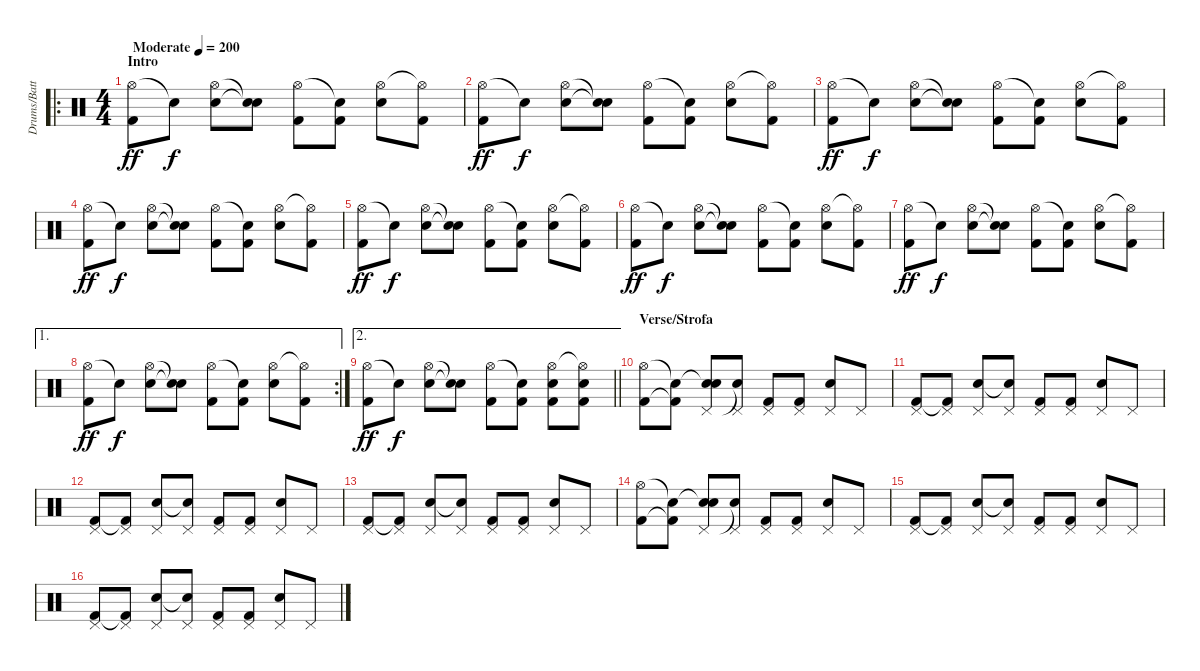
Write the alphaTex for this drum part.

\track ("Drums/Batteria" "Drums/Batt") {instrument percussion}
\staff {score}
\articulation defaults
\ro
\ts (4 4)
\section ("" "Intro")
\tempo (200 "Moderate")
\clef neutral
\ks c
("Hi-Hat (open)" "Kick (hit) 2").8{dy ff} "Snare (hit)"{t}.8{dy f} ("Hi-Hat (open)" "Electric Snare (hit)").8 ("Snare (hit)"{t} "Snare (hit)"{t}).8 ("Hi-Hat (open)" "Kick (hit) 2").8 ("Snare (hit)"{t} "Kick (hit) 2").8 ("Hi-Hat (open)" "Electric Snare (hit)").8 ("Hi-Hat (open)"{t} "Kick (hit) 2").8 |
("Hi-Hat (open)" "Kick (hit) 2").8{dy ff} "Snare (hit)"{t}.8{dy f} ("Hi-Hat (open)" "Electric Snare (hit)").8 ("Snare (hit)"{t} "Snare (hit)"{t}).8 ("Hi-Hat (open)" "Kick (hit) 2").8 ("Snare (hit)"{t} "Kick (hit) 2").8 ("Hi-Hat (open)" "Electric Snare (hit)").8 ("Hi-Hat (open)"{t} "Kick (hit) 2").8 |
("Hi-Hat (open)" "Kick (hit) 2").8{dy ff} "Snare (hit)"{t}.8{dy f} ("Hi-Hat (open)" "Electric Snare (hit)").8 ("Snare (hit)"{t} "Snare (hit)"{t}).8 ("Hi-Hat (open)" "Kick (hit) 2").8 ("Snare (hit)"{t} "Kick (hit) 2").8 ("Hi-Hat (open)" "Electric Snare (hit)").8 ("Hi-Hat (open)"{t} "Kick (hit) 2").8 |
("Hi-Hat (open)" "Kick (hit) 2").8{dy ff} "Snare (hit)"{t}.8{dy f} ("Hi-Hat (open)" "Electric Snare (hit)").8 ("Snare (hit)"{t} "Snare (hit)"{t}).8 ("Hi-Hat (open)" "Kick (hit) 2").8 ("Snare (hit)"{t} "Kick (hit) 2").8 ("Hi-Hat (open)" "Electric Snare (hit)").8 ("Hi-Hat (open)"{t} "Kick (hit) 2").8 |
("Hi-Hat (open)" "Kick (hit) 2").8{dy ff} "Snare (hit)"{t}.8{dy f} ("Hi-Hat (open)" "Electric Snare (hit)").8 ("Snare (hit)"{t} "Snare (hit)"{t}).8 ("Hi-Hat (open)" "Kick (hit) 2").8 ("Snare (hit)"{t} "Kick (hit) 2").8 ("Hi-Hat (open)" "Electric Snare (hit)").8 ("Hi-Hat (open)"{t} "Kick (hit) 2").8 |
("Hi-Hat (open)" "Kick (hit) 2").8{dy ff} "Snare (hit)"{t}.8{dy f} ("Hi-Hat (open)" "Electric Snare (hit)").8 ("Snare (hit)"{t} "Snare (hit)"{t}).8 ("Hi-Hat (open)" "Kick (hit) 2").8 ("Snare (hit)"{t} "Kick (hit) 2").8 ("Hi-Hat (open)" "Electric Snare (hit)").8 ("Hi-Hat (open)"{t} "Kick (hit) 2").8 |
("Hi-Hat (open)" "Kick (hit) 2").8{dy ff} "Snare (hit)"{t}.8{dy f} ("Hi-Hat (open)" "Electric Snare (hit)").8 ("Snare (hit)"{t} "Snare (hit)"{t}).8 ("Hi-Hat (open)" "Kick (hit) 2").8 ("Snare (hit)"{t} "Kick (hit) 2").8 ("Hi-Hat (open)" "Electric Snare (hit)").8 ("Hi-Hat (open)"{t} "Kick (hit) 2").8 |
\ae 1
\rc 2
("Hi-Hat (open)" "Kick (hit) 2").8{dy ff} "Snare (hit)"{t}.8{dy f} ("Hi-Hat (open)" "Electric Snare (hit)").8 ("Snare (hit)"{t} "Snare (hit)"{t}).8 ("Hi-Hat (open)" "Kick (hit) 2").8 ("Snare (hit)"{t} "Kick (hit) 2").8 ("Hi-Hat (open)" "Electric Snare (hit)").8 ("Hi-Hat (open)"{t} "Kick (hit) 2").8 |
\ae 2
\barLineRight lightlight
("Hi-Hat (open)" "Kick (hit) 2").8{dy ff} "Snare (hit)"{t}.8{dy f} ("Hi-Hat (open)" "Electric Snare (hit)").8 ("Snare (hit)"{t} "Snare (hit)"{t}).8 ("Hi-Hat (open)" "Kick (hit) 2").8 ("Snare (hit)"{t} "Kick (hit) 2").8 ("Hi-Hat (open)" "Electric Snare (hit)" "Kick (hit) 2").8 ("Hi-Hat (open)"{t} "Electric Snare (hit)" "Kick (hit) 2").8 |
\section ("" "Verse/Strofa")
("Hi-Hat (open)" "Kick (hit) 2").8 ("Snare (hit)"{t} "Kick (hit) 2"{t}).8 ("Snare (hit)"{t} "Pedal Hi-Hat (hit)" "Electric Snare (hit)").8 ("Pedal Hi-Hat (hit)" "Snare (hit)"{t}).8 ("Pedal Hi-Hat (hit)" "Kick (hit) 2").8 ("Pedal Hi-Hat (hit)" "Kick (hit) 2").8 ("Pedal Hi-Hat (hit)" "Electric Snare (hit)").8 "Pedal Hi-Hat (hit)".8 |
("Pedal Hi-Hat (hit)" "Kick (hit) 2").8 ("Pedal Hi-Hat (hit)" "Kick (hit) 2"{t}).8 ("Pedal Hi-Hat (hit)" "Electric Snare (hit)").8 ("Pedal Hi-Hat (hit)" "Electric Snare (hit)"{t}).8 ("Pedal Hi-Hat (hit)" "Kick (hit) 2").8 ("Pedal Hi-Hat (hit)" "Kick (hit) 2").8 ("Pedal Hi-Hat (hit)" "Electric Snare (hit)").8 "Pedal Hi-Hat (hit)".8 |
("Pedal Hi-Hat (hit)" "Kick (hit) 2").8 ("Pedal Hi-Hat (hit)" "Kick (hit) 2"{t}).8 ("Pedal Hi-Hat (hit)" "Electric Snare (hit)").8 ("Pedal Hi-Hat (hit)" "Electric Snare (hit)"{t}).8 ("Pedal Hi-Hat (hit)" "Kick (hit) 2").8 ("Pedal Hi-Hat (hit)" "Kick (hit) 2").8 ("Pedal Hi-Hat (hit)" "Electric Snare (hit)").8 "Pedal Hi-Hat (hit)".8 |
("Pedal Hi-Hat (hit)" "Kick (hit) 2").8 ("Pedal Hi-Hat (hit)" "Kick (hit) 2"{t}).8 ("Pedal Hi-Hat (hit)" "Electric Snare (hit)").8 ("Pedal Hi-Hat (hit)" "Electric Snare (hit)"{t}).8 ("Pedal Hi-Hat (hit)" "Kick (hit) 2").8 ("Pedal Hi-Hat (hit)" "Kick (hit) 2").8 ("Pedal Hi-Hat (hit)" "Electric Snare (hit)").8 "Pedal Hi-Hat (hit)".8 |
("Hi-Hat (open)" "Kick (hit) 2").8 ("Snare (hit)"{t} "Kick (hit) 2"{t}).8 ("Snare (hit)"{t} "Pedal Hi-Hat (hit)" "Electric Snare (hit)").8 ("Pedal Hi-Hat (hit)" "Snare (hit)"{t}).8 ("Pedal Hi-Hat (hit)" "Kick (hit) 2").8 ("Pedal Hi-Hat (hit)" "Kick (hit) 2").8 ("Pedal Hi-Hat (hit)" "Electric Snare (hit)").8 "Pedal Hi-Hat (hit)".8 |
("Pedal Hi-Hat (hit)" "Kick (hit) 2").8 ("Pedal Hi-Hat (hit)" "Kick (hit) 2"{t}).8 ("Pedal Hi-Hat (hit)" "Electric Snare (hit)").8 ("Pedal Hi-Hat (hit)" "Electric Snare (hit)"{t}).8 ("Pedal Hi-Hat (hit)" "Kick (hit) 2").8 ("Pedal Hi-Hat (hit)" "Kick (hit) 2").8 ("Pedal Hi-Hat (hit)" "Electric Snare (hit)").8 "Pedal Hi-Hat (hit)".8 |
("Pedal Hi-Hat (hit)" "Kick (hit) 2").8 ("Pedal Hi-Hat (hit)" "Kick (hit) 2"{t}).8 ("Pedal Hi-Hat (hit)" "Electric Snare (hit)").8 ("Pedal Hi-Hat (hit)" "Electric Snare (hit)"{t}).8 ("Pedal Hi-Hat (hit)" "Kick (hit) 2").8 ("Pedal Hi-Hat (hit)" "Kick (hit) 2").8 ("Pedal Hi-Hat (hit)" "Electric Snare (hit)").8 "Pedal Hi-Hat (hit)".8
